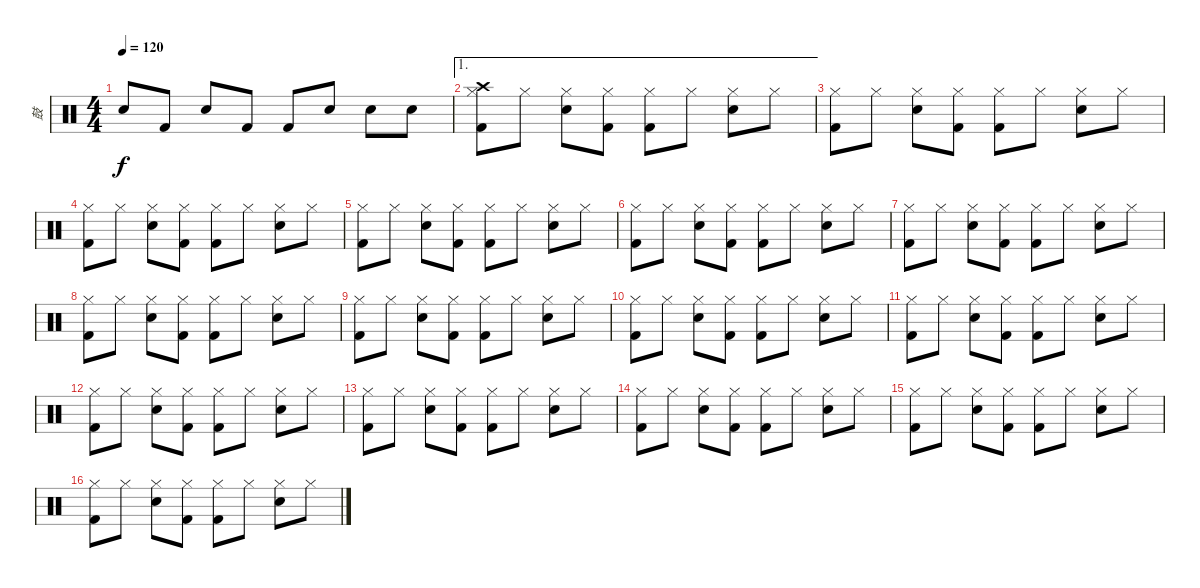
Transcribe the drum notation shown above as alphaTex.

\track ("鼓" "鼓") {instrument percussion}
\staff {score}
\articulation defaults
\ts (4 4)
\tempo 120
\clef neutral
\ks c "Snare (hit)"{t}.8{dy f} "Kick (hit) 2".8 "Snare (hit) 2".8 "Kick (hit) 2".8 "Kick (hit) 2".8 "Snare (hit) 2".8 "Snare (hit) 2".8 "Snare (hit) 2".8
|
\ae 1
("Hi-Hat (closed)" "Crash high (hit)" "Kick (hit) 2").8 "Hi-Hat (closed)".8 ("Hi-Hat (closed)" "Snare (hit) 2").8 ("Hi-Hat (closed)" "Kick (hit) 2").8 ("Hi-Hat (closed)" "Kick (hit) 2").8 "Hi-Hat (closed)".8 ("Hi-Hat (closed)" "Snare (hit) 2").8 "Hi-Hat (closed)".8 |
("Hi-Hat (closed)" "Kick (hit) 2").8 "Hi-Hat (closed)".8 ("Hi-Hat (closed)" "Snare (hit) 2").8 ("Hi-Hat (closed)" "Kick (hit) 2").8 ("Hi-Hat (closed)" "Kick (hit) 2").8 "Hi-Hat (closed)".8 ("Hi-Hat (closed)" "Snare (hit) 2").8 "Hi-Hat (closed)".8 |
("Hi-Hat (closed)" "Kick (hit) 2").8 "Hi-Hat (closed)".8 ("Hi-Hat (closed)" "Snare (hit) 2").8 ("Hi-Hat (closed)" "Kick (hit) 2").8 ("Hi-Hat (closed)" "Kick (hit) 2").8 "Hi-Hat (closed)".8 ("Hi-Hat (closed)" "Snare (hit) 2").8 "Hi-Hat (closed)".8 |
("Hi-Hat (closed)" "Kick (hit) 2").8 "Hi-Hat (closed)".8 ("Hi-Hat (closed)" "Snare (hit) 2").8 ("Hi-Hat (closed)" "Kick (hit) 2").8 ("Hi-Hat (closed)" "Kick (hit) 2").8 "Hi-Hat (closed)".8 ("Hi-Hat (closed)" "Snare (hit) 2").8 "Hi-Hat (closed)".8 |
("Hi-Hat (closed)" "Kick (hit) 2").8 "Hi-Hat (closed)".8 ("Hi-Hat (closed)" "Snare (hit) 2").8 ("Hi-Hat (closed)" "Kick (hit) 2").8 ("Hi-Hat (closed)" "Kick (hit) 2").8 "Hi-Hat (closed)".8 ("Hi-Hat (closed)" "Snare (hit) 2").8 "Hi-Hat (closed)".8 |
("Hi-Hat (closed)" "Kick (hit) 2").8 "Hi-Hat (closed)".8 ("Hi-Hat (closed)" "Snare (hit) 2").8 ("Hi-Hat (closed)" "Kick (hit) 2").8 ("Hi-Hat (closed)" "Kick (hit) 2").8 "Hi-Hat (closed)".8 ("Hi-Hat (closed)" "Snare (hit) 2").8 "Hi-Hat (closed)".8 |
("Hi-Hat (closed)" "Kick (hit) 2").8 "Hi-Hat (closed)".8 ("Hi-Hat (closed)" "Snare (hit) 2").8 ("Hi-Hat (closed)" "Kick (hit) 2").8 ("Hi-Hat (closed)" "Kick (hit) 2").8 "Hi-Hat (closed)".8 ("Hi-Hat (closed)" "Snare (hit) 2").8 "Hi-Hat (closed)".8 |
("Hi-Hat (closed)" "Kick (hit) 2").8 "Hi-Hat (closed)".8 ("Hi-Hat (closed)" "Snare (hit) 2").8 ("Hi-Hat (closed)" "Kick (hit) 2").8 ("Hi-Hat (closed)" "Kick (hit) 2").8 "Hi-Hat (closed)".8 ("Hi-Hat (closed)" "Snare (hit) 2").8 "Hi-Hat (closed)".8 |
("Hi-Hat (closed)" "Kick (hit) 2").8 "Hi-Hat (closed)".8 ("Hi-Hat (closed)" "Snare (hit) 2").8 ("Hi-Hat (closed)" "Kick (hit) 2").8 ("Hi-Hat (closed)" "Kick (hit) 2").8 "Hi-Hat (closed)".8 ("Hi-Hat (closed)" "Snare (hit) 2").8 "Hi-Hat (closed)".8 |
("Hi-Hat (closed)" "Kick (hit) 2").8 "Hi-Hat (closed)".8 ("Hi-Hat (closed)" "Snare (hit) 2").8 ("Hi-Hat (closed)" "Kick (hit) 2").8 ("Hi-Hat (closed)" "Kick (hit) 2").8 "Hi-Hat (closed)".8 ("Hi-Hat (closed)" "Snare (hit) 2").8 "Hi-Hat (closed)".8 |
("Hi-Hat (closed)" "Kick (hit) 2").8 "Hi-Hat (closed)".8 ("Hi-Hat (closed)" "Snare (hit) 2").8 ("Hi-Hat (closed)" "Kick (hit) 2").8 ("Hi-Hat (closed)" "Kick (hit) 2").8 "Hi-Hat (closed)".8 ("Hi-Hat (closed)" "Snare (hit) 2").8 "Hi-Hat (closed)".8 |
("Hi-Hat (closed)" "Kick (hit) 2").8 "Hi-Hat (closed)".8 ("Hi-Hat (closed)" "Snare (hit) 2").8 ("Hi-Hat (closed)" "Kick (hit) 2").8 ("Hi-Hat (closed)" "Kick (hit) 2").8 "Hi-Hat (closed)".8 ("Hi-Hat (closed)" "Snare (hit) 2").8 "Hi-Hat (closed)".8 |
("Hi-Hat (closed)" "Kick (hit) 2").8 "Hi-Hat (closed)".8 ("Hi-Hat (closed)" "Snare (hit) 2").8 ("Hi-Hat (closed)" "Kick (hit) 2").8 ("Hi-Hat (closed)" "Kick (hit) 2").8 "Hi-Hat (closed)".8 ("Hi-Hat (closed)" "Snare (hit) 2").8 "Hi-Hat (closed)".8 |
("Hi-Hat (closed)" "Kick (hit) 2").8 "Hi-Hat (closed)".8 ("Hi-Hat (closed)" "Snare (hit) 2").8 ("Hi-Hat (closed)" "Kick (hit) 2").8 ("Hi-Hat (closed)" "Kick (hit) 2").8 "Hi-Hat (closed)".8 ("Hi-Hat (closed)" "Snare (hit) 2").8 "Hi-Hat (closed)".8 |
("Hi-Hat (closed)" "Kick (hit) 2").8 "Hi-Hat (closed)".8 ("Hi-Hat (closed)" "Snare (hit) 2").8 ("Hi-Hat (closed)" "Kick (hit) 2").8 ("Hi-Hat (closed)" "Kick (hit) 2").8 "Hi-Hat (closed)".8 ("Hi-Hat (closed)" "Snare (hit) 2").8 "Hi-Hat (closed)".8
